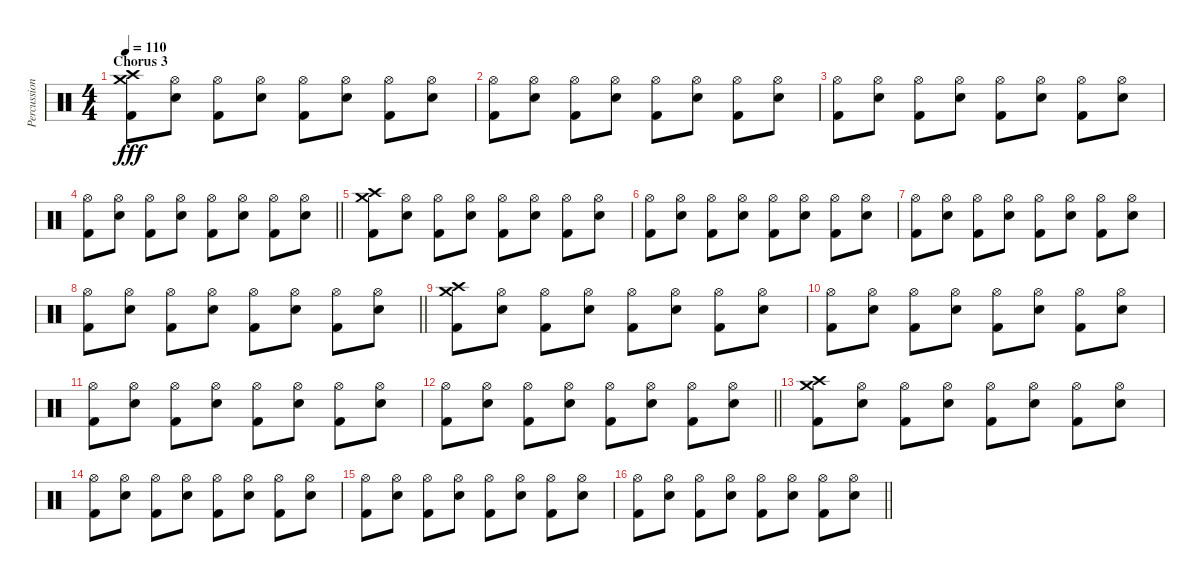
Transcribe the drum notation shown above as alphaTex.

\track ("Percussion" "Percussion") {instrument percussion}
\staff {score}
\articulation defaults
\ts (4 4)
\section ("" "Chorus 3")
\tempo 110
\clef neutral
\ks c
("Kick (hit) 2" "Crash medium (hit)" "Crash high (hit)").8{dy fff} ("Electric Snare (hit)" "Hi-Hat (open)").8 ("Kick (hit) 2" "Hi-Hat (open)").8 ("Electric Snare (hit)" "Hi-Hat (open)").8 ("Kick (hit) 2" "Hi-Hat (open)").8 ("Electric Snare (hit)" "Hi-Hat (open)").8 ("Kick (hit) 2" "Hi-Hat (open)").8 ("Electric Snare (hit)" "Hi-Hat (open)").8 |
("Kick (hit) 2" "Hi-Hat (open)").8 ("Electric Snare (hit)" "Hi-Hat (open)").8 ("Kick (hit) 2" "Hi-Hat (open)").8 ("Electric Snare (hit)" "Hi-Hat (open)").8 ("Kick (hit) 2" "Hi-Hat (open)").8 ("Electric Snare (hit)" "Hi-Hat (open)").8 ("Kick (hit) 2" "Hi-Hat (open)").8 ("Electric Snare (hit)" "Hi-Hat (open)").8 |
("Kick (hit) 2" "Hi-Hat (open)").8 ("Electric Snare (hit)" "Hi-Hat (open)").8 ("Kick (hit) 2" "Hi-Hat (open)").8 ("Electric Snare (hit)" "Hi-Hat (open)").8 ("Kick (hit) 2" "Hi-Hat (open)").8 ("Electric Snare (hit)" "Hi-Hat (open)").8 ("Kick (hit) 2" "Hi-Hat (open)").8 ("Electric Snare (hit)" "Hi-Hat (open)").8 |
\barLineRight lightlight
("Kick (hit) 2" "Hi-Hat (open)").8 ("Electric Snare (hit)" "Hi-Hat (open)").8 ("Kick (hit) 2" "Hi-Hat (open)").8 ("Electric Snare (hit)" "Hi-Hat (open)").8 ("Kick (hit) 2" "Hi-Hat (open)").8 ("Electric Snare (hit)" "Hi-Hat (open)").8 ("Kick (hit) 2" "Hi-Hat (open)").8 ("Electric Snare (hit)" "Hi-Hat (open)").8 |
("Kick (hit) 2" "Crash medium (hit)" "Crash high (hit)").8 ("Electric Snare (hit)" "Hi-Hat (open)").8 ("Kick (hit) 2" "Hi-Hat (open)").8 ("Electric Snare (hit)" "Hi-Hat (open)").8 ("Kick (hit) 2" "Hi-Hat (open)").8 ("Electric Snare (hit)" "Hi-Hat (open)").8 ("Kick (hit) 2" "Hi-Hat (open)").8 ("Electric Snare (hit)" "Hi-Hat (open)").8 |
("Kick (hit) 2" "Hi-Hat (open)").8 ("Electric Snare (hit)" "Hi-Hat (open)").8 ("Kick (hit) 2" "Hi-Hat (open)").8 ("Electric Snare (hit)" "Hi-Hat (open)").8 ("Kick (hit) 2" "Hi-Hat (open)").8 ("Electric Snare (hit)" "Hi-Hat (open)").8 ("Kick (hit) 2" "Hi-Hat (open)").8 ("Electric Snare (hit)" "Hi-Hat (open)").8 |
("Kick (hit) 2" "Hi-Hat (open)").8 ("Electric Snare (hit)" "Hi-Hat (open)").8 ("Kick (hit) 2" "Hi-Hat (open)").8 ("Electric Snare (hit)" "Hi-Hat (open)").8 ("Kick (hit) 2" "Hi-Hat (open)").8 ("Electric Snare (hit)" "Hi-Hat (open)").8 ("Kick (hit) 2" "Hi-Hat (open)").8 ("Electric Snare (hit)" "Hi-Hat (open)").8 |
\barLineRight lightlight
("Kick (hit) 2" "Hi-Hat (open)").8 ("Electric Snare (hit)" "Hi-Hat (open)").8 ("Kick (hit) 2" "Hi-Hat (open)").8 ("Electric Snare (hit)" "Hi-Hat (open)").8 ("Kick (hit) 2" "Hi-Hat (open)").8 ("Electric Snare (hit)" "Hi-Hat (open)").8 ("Kick (hit) 2" "Hi-Hat (open)").8 ("Electric Snare (hit)" "Hi-Hat (open)").8 |
("Kick (hit) 2" "Crash medium (hit)" "Crash high (hit)").8 ("Electric Snare (hit)" "Hi-Hat (open)").8 ("Kick (hit) 2" "Hi-Hat (open)").8 ("Electric Snare (hit)" "Hi-Hat (open)").8 ("Kick (hit) 2" "Hi-Hat (open)").8 ("Electric Snare (hit)" "Hi-Hat (open)").8 ("Kick (hit) 2" "Hi-Hat (open)").8 ("Electric Snare (hit)" "Hi-Hat (open)").8 |
("Kick (hit) 2" "Hi-Hat (open)").8 ("Electric Snare (hit)" "Hi-Hat (open)").8 ("Kick (hit) 2" "Hi-Hat (open)").8 ("Electric Snare (hit)" "Hi-Hat (open)").8 ("Kick (hit) 2" "Hi-Hat (open)").8 ("Electric Snare (hit)" "Hi-Hat (open)").8 ("Kick (hit) 2" "Hi-Hat (open)").8 ("Electric Snare (hit)" "Hi-Hat (open)").8 |
("Kick (hit) 2" "Hi-Hat (open)").8 ("Electric Snare (hit)" "Hi-Hat (open)").8 ("Kick (hit) 2" "Hi-Hat (open)").8 ("Electric Snare (hit)" "Hi-Hat (open)").8 ("Kick (hit) 2" "Hi-Hat (open)").8 ("Electric Snare (hit)" "Hi-Hat (open)").8 ("Kick (hit) 2" "Hi-Hat (open)").8 ("Electric Snare (hit)" "Hi-Hat (open)").8 |
\barLineRight lightlight
("Kick (hit) 2" "Hi-Hat (open)").8 ("Electric Snare (hit)" "Hi-Hat (open)").8 ("Kick (hit) 2" "Hi-Hat (open)").8 ("Electric Snare (hit)" "Hi-Hat (open)").8 ("Kick (hit) 2" "Hi-Hat (open)").8 ("Electric Snare (hit)" "Hi-Hat (open)").8 ("Kick (hit) 2" "Hi-Hat (open)").8 ("Electric Snare (hit)" "Hi-Hat (open)").8 |
("Kick (hit) 2" "Crash medium (hit)" "Crash high (hit)").8 ("Electric Snare (hit)" "Hi-Hat (open)").8 ("Kick (hit) 2" "Hi-Hat (open)").8 ("Electric Snare (hit)" "Hi-Hat (open)").8 ("Kick (hit) 2" "Hi-Hat (open)").8 ("Electric Snare (hit)" "Hi-Hat (open)").8 ("Kick (hit) 2" "Hi-Hat (open)").8 ("Electric Snare (hit)" "Hi-Hat (open)").8 |
("Kick (hit) 2" "Hi-Hat (open)").8 ("Electric Snare (hit)" "Hi-Hat (open)").8 ("Kick (hit) 2" "Hi-Hat (open)").8 ("Electric Snare (hit)" "Hi-Hat (open)").8 ("Kick (hit) 2" "Hi-Hat (open)").8 ("Electric Snare (hit)" "Hi-Hat (open)").8 ("Kick (hit) 2" "Hi-Hat (open)").8 ("Electric Snare (hit)" "Hi-Hat (open)").8 |
("Kick (hit) 2" "Hi-Hat (open)").8 ("Electric Snare (hit)" "Hi-Hat (open)").8 ("Kick (hit) 2" "Hi-Hat (open)").8 ("Electric Snare (hit)" "Hi-Hat (open)").8 ("Kick (hit) 2" "Hi-Hat (open)").8 ("Electric Snare (hit)" "Hi-Hat (open)").8 ("Kick (hit) 2" "Hi-Hat (open)").8 ("Electric Snare (hit)" "Hi-Hat (open)").8 |
\barLineRight lightlight
("Kick (hit) 2" "Hi-Hat (open)").8 ("Electric Snare (hit)" "Hi-Hat (open)").8 ("Kick (hit) 2" "Hi-Hat (open)").8 ("Electric Snare (hit)" "Hi-Hat (open)").8 ("Kick (hit) 2" "Hi-Hat (open)").8 ("Electric Snare (hit)" "Hi-Hat (open)").8 ("Kick (hit) 2" "Hi-Hat (open)").8 ("Electric Snare (hit)" "Hi-Hat (open)").8
